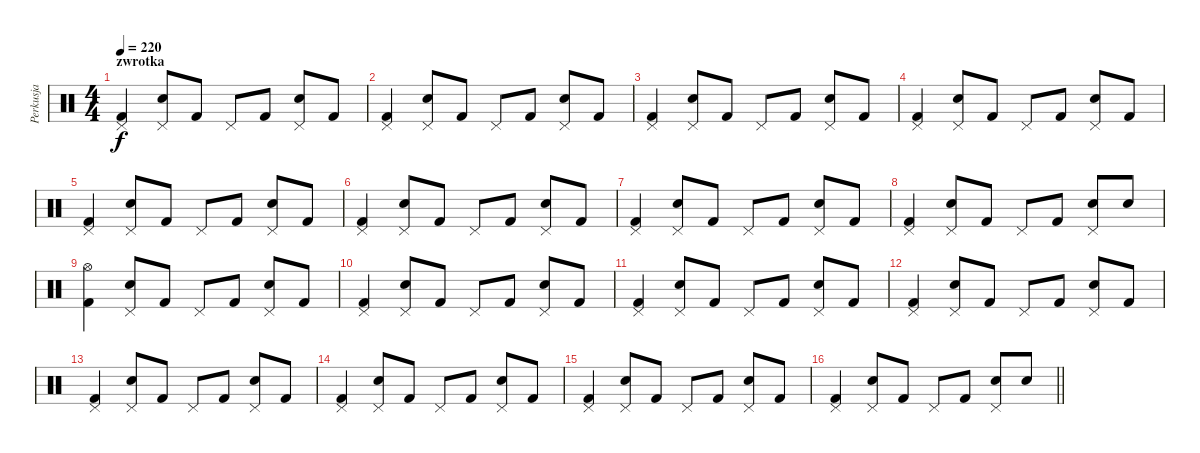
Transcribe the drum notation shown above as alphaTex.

\track ("Perkusja" "Perkusja") {instrument percussion}
\staff {score}
\articulation defaults
\ts (4 4)
\section ("" "zwrotka")
\tempo 220
\clef neutral
\ks c
("Pedal Hi-Hat (hit)" "Kick (hit) 2").4{dy f} ("Pedal Hi-Hat (hit)" "Snare (hit) 2").8 "Kick (hit) 2".8 "Pedal Hi-Hat (hit)".8 "Kick (hit) 2".8 ("Pedal Hi-Hat (hit)" "Snare (hit) 2").8 "Kick (hit) 2".8 |
("Pedal Hi-Hat (hit)" "Kick (hit) 2").4 ("Pedal Hi-Hat (hit)" "Snare (hit) 2").8 "Kick (hit) 2".8 "Pedal Hi-Hat (hit)".8 "Kick (hit) 2".8 ("Pedal Hi-Hat (hit)" "Snare (hit) 2").8 "Kick (hit) 2".8 |
("Pedal Hi-Hat (hit)" "Kick (hit) 2").4 ("Pedal Hi-Hat (hit)" "Snare (hit) 2").8 "Kick (hit) 2".8 "Pedal Hi-Hat (hit)".8 "Kick (hit) 2".8 ("Pedal Hi-Hat (hit)" "Snare (hit) 2").8 "Kick (hit) 2".8 |
("Pedal Hi-Hat (hit)" "Kick (hit) 2").4 ("Pedal Hi-Hat (hit)" "Snare (hit) 2").8 "Kick (hit) 2".8 "Pedal Hi-Hat (hit)".8 "Kick (hit) 2".8 ("Pedal Hi-Hat (hit)" "Snare (hit) 2").8 "Kick (hit) 2".8 |
("Pedal Hi-Hat (hit)" "Kick (hit) 2").4 ("Pedal Hi-Hat (hit)" "Snare (hit) 2").8 "Kick (hit) 2".8 "Pedal Hi-Hat (hit)".8 "Kick (hit) 2".8 ("Pedal Hi-Hat (hit)" "Snare (hit) 2").8 "Kick (hit) 2".8 |
("Pedal Hi-Hat (hit)" "Kick (hit) 2").4 ("Pedal Hi-Hat (hit)" "Snare (hit) 2").8 "Kick (hit) 2".8 "Pedal Hi-Hat (hit)".8 "Kick (hit) 2".8 ("Pedal Hi-Hat (hit)" "Snare (hit) 2").8 "Kick (hit) 2".8 |
("Pedal Hi-Hat (hit)" "Kick (hit) 2").4 ("Pedal Hi-Hat (hit)" "Snare (hit) 2").8 "Kick (hit) 2".8 "Pedal Hi-Hat (hit)".8 "Kick (hit) 2".8 ("Pedal Hi-Hat (hit)" "Snare (hit) 2").8 "Kick (hit) 2".8 |
("Pedal Hi-Hat (hit)" "Kick (hit) 2").4 ("Pedal Hi-Hat (hit)" "Snare (hit) 2").8 "Kick (hit) 2".8 "Pedal Hi-Hat (hit)".8 "Kick (hit) 2".8 ("Pedal Hi-Hat (hit)" "Snare (hit) 2").8 "Snare (hit) 2".8 |
("Hi-Hat (open)" "Kick (hit) 2").4 ("Pedal Hi-Hat (hit)" "Snare (hit) 2").8 "Kick (hit) 2".8 "Pedal Hi-Hat (hit)".8 "Kick (hit) 2".8 ("Pedal Hi-Hat (hit)" "Snare (hit) 2").8 "Kick (hit) 2".8 |
("Pedal Hi-Hat (hit)" "Kick (hit) 2").4 ("Pedal Hi-Hat (hit)" "Snare (hit) 2").8 "Kick (hit) 2".8 "Pedal Hi-Hat (hit)".8 "Kick (hit) 2".8 ("Pedal Hi-Hat (hit)" "Snare (hit) 2").8 "Kick (hit) 2".8 |
("Pedal Hi-Hat (hit)" "Kick (hit) 2").4 ("Pedal Hi-Hat (hit)" "Snare (hit) 2").8 "Kick (hit) 2".8 "Pedal Hi-Hat (hit)".8 "Kick (hit) 2".8 ("Pedal Hi-Hat (hit)" "Snare (hit) 2").8 "Kick (hit) 2".8 |
("Pedal Hi-Hat (hit)" "Kick (hit) 2").4 ("Pedal Hi-Hat (hit)" "Snare (hit) 2").8 "Kick (hit) 2".8 "Pedal Hi-Hat (hit)".8 "Kick (hit) 2".8 ("Pedal Hi-Hat (hit)" "Snare (hit) 2").8 "Kick (hit) 2".8 |
("Pedal Hi-Hat (hit)" "Kick (hit) 2").4 ("Pedal Hi-Hat (hit)" "Snare (hit) 2").8 "Kick (hit) 2".8 "Pedal Hi-Hat (hit)".8 "Kick (hit) 2".8 ("Pedal Hi-Hat (hit)" "Snare (hit) 2").8 "Kick (hit) 2".8 |
("Pedal Hi-Hat (hit)" "Kick (hit) 2").4 ("Pedal Hi-Hat (hit)" "Snare (hit) 2").8 "Kick (hit) 2".8 "Pedal Hi-Hat (hit)".8 "Kick (hit) 2".8 ("Pedal Hi-Hat (hit)" "Snare (hit) 2").8 "Kick (hit) 2".8 |
("Pedal Hi-Hat (hit)" "Kick (hit) 2").4 ("Pedal Hi-Hat (hit)" "Snare (hit) 2").8 "Kick (hit) 2".8 "Pedal Hi-Hat (hit)".8 "Kick (hit) 2".8 ("Pedal Hi-Hat (hit)" "Snare (hit) 2").8 "Kick (hit) 2".8 |
\barLineRight lightlight
("Pedal Hi-Hat (hit)" "Kick (hit) 2").4 ("Pedal Hi-Hat (hit)" "Snare (hit) 2").8 "Kick (hit) 2".8 "Pedal Hi-Hat (hit)".8 "Kick (hit) 2".8 ("Pedal Hi-Hat (hit)" "Snare (hit) 2").8 "Snare (hit) 2".8
